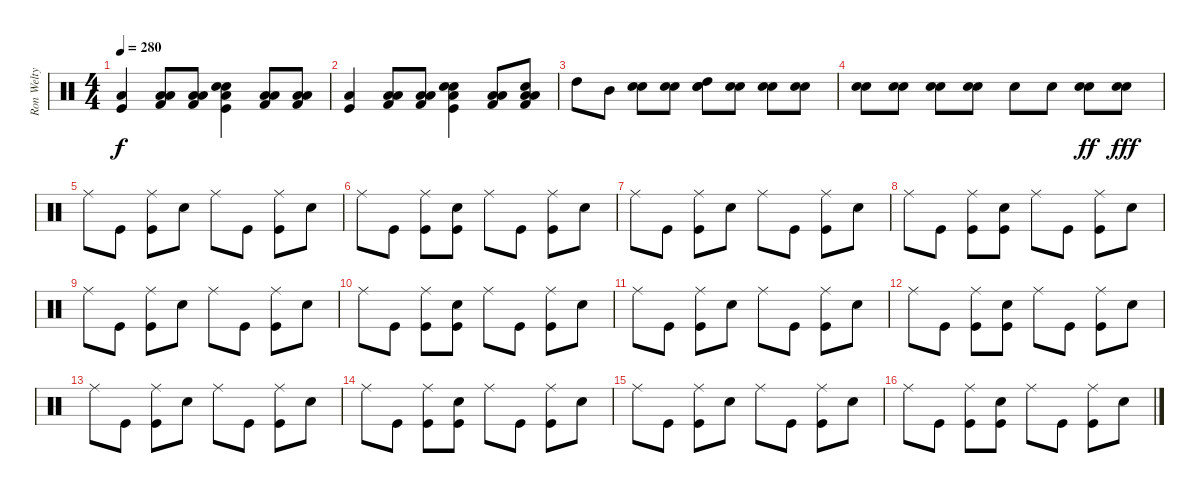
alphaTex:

\track ("Ron Welty" "Ron Welty") {instrument percussion}
\staff {score}
\articulation defaults
\ts (4 4)
\tempo 280
\clef neutral
\ks c
("Low Tom (hit)" "Kick (hit)").4{dy f} ("Low Tom (hit)" "Low Floor Tom (hit)" "Kick (hit) 2").8 ("Low Tom (hit)" "Low Floor Tom (hit)" "Kick (hit) 2").8 ("Snare (hit) 2" "Snare (hit) 2" "Low Tom (hit)" "Kick (hit)").4 ("Low Tom (hit)" "Low Floor Tom (hit)" "Kick (hit) 2").8 ("Low Tom (hit)" "Low Floor Tom (hit)" "Kick (hit) 2").8 |
("Low Tom (hit)" "Kick (hit)").4 ("Low Tom (hit)" "Low Floor Tom (hit)" "Kick (hit) 2").8 ("Low Tom (hit)" "Low Floor Tom (hit)" "Kick (hit) 2").8 ("Snare (hit) 2" "Snare (hit) 2" "Low Tom (hit)" "Kick (hit)").4 ("Low Tom (hit)" "Low Floor Tom (hit)" "Kick (hit) 2").8 ("Snare (hit) 2" "Low Tom (hit)" "Low Floor Tom (hit)" "Kick (hit) 2").8 |
"High Tom (hit)".8 "Mid Tom (hit)".8 ("Snare (hit) 2" "Snare (hit) 2").8 ("Snare (hit) 2" "Snare (hit) 2").8 ("Snare (hit) 2" "Electric Snare (hit)" "High Tom (hit)").8 ("Snare (hit) 2" "Electric Snare (hit)").8 ("Snare (hit) 2" "Snare (hit) 2").8 ("Snare (hit) 2" "Electric Snare (hit)").8 |
("Snare (hit) 2" "Electric Snare (hit)").8 ("Snare (hit) 2" "Electric Snare (hit)").8 ("Snare (hit) 2" "Snare (hit) 2").8 ("Snare (hit) 2" "Snare (hit) 2").8 "Electric Snare (hit)".8 "Electric Snare (hit)".8 ("Electric Snare (hit)" "Snare (hit) 2").8{dy ff} ("Electric Snare (hit)" "Snare (hit) 2").8{dy fff} |
"Ride (middle)".8 "Kick (hit)".8 ("Ride (middle)" "Kick (hit)").8 "Snare (hit) 2".8 "Ride (middle)".8 "Kick (hit)".8 ("Ride (middle)" "Kick (hit)").8 "Snare (hit) 2".8 |
"Ride (middle)".8 "Kick (hit)".8 ("Ride (middle)" "Kick (hit)").8 ("Snare (hit) 2" "Kick (hit)").8 "Ride (middle)".8 "Kick (hit)".8 ("Ride (middle)" "Kick (hit)").8 "Snare (hit) 2".8 |
"Ride (middle)".8 "Kick (hit)".8 ("Ride (middle)" "Kick (hit)").8 "Snare (hit) 2".8 "Ride (middle)".8 "Kick (hit)".8 ("Ride (middle)" "Kick (hit)").8 "Snare (hit) 2".8 |
"Ride (middle)".8 "Kick (hit)".8 ("Ride (middle)" "Kick (hit)").8 ("Snare (hit) 2" "Kick (hit)").8 "Ride (middle)".8 "Kick (hit)".8 ("Ride (middle)" "Kick (hit)").8 "Snare (hit) 2".8 |
"Ride (middle)".8 "Kick (hit)".8 ("Ride (middle)" "Kick (hit)").8 "Snare (hit) 2".8 "Ride (middle)".8 "Kick (hit)".8 ("Ride (middle)" "Kick (hit)").8 "Snare (hit) 2".8 |
"Ride (middle)".8 "Kick (hit)".8 ("Ride (middle)" "Kick (hit)").8 ("Snare (hit) 2" "Kick (hit)").8 "Ride (middle)".8 "Kick (hit)".8 ("Ride (middle)" "Kick (hit)").8 "Snare (hit) 2".8 |
"Ride (middle)".8 "Kick (hit)".8 ("Ride (middle)" "Kick (hit)").8 "Snare (hit) 2".8 "Ride (middle)".8 "Kick (hit)".8 ("Ride (middle)" "Kick (hit)").8 "Snare (hit) 2".8 |
"Ride (middle)".8 "Kick (hit)".8 ("Ride (middle)" "Kick (hit)").8 ("Snare (hit) 2" "Kick (hit)").8 "Ride (middle)".8 "Kick (hit)".8 ("Ride (middle)" "Kick (hit)").8 "Snare (hit) 2".8 |
"Ride (middle)".8 "Kick (hit)".8 ("Ride (middle)" "Kick (hit)").8 "Snare (hit) 2".8 "Ride (middle)".8 "Kick (hit)".8 ("Ride (middle)" "Kick (hit)").8 "Snare (hit) 2".8 |
"Ride (middle)".8 "Kick (hit)".8 ("Ride (middle)" "Kick (hit)").8 ("Snare (hit) 2" "Kick (hit)").8 "Ride (middle)".8 "Kick (hit)".8 ("Ride (middle)" "Kick (hit)").8 "Snare (hit) 2".8 |
"Ride (middle)".8 "Kick (hit)".8 ("Ride (middle)" "Kick (hit)").8 "Snare (hit) 2".8 "Ride (middle)".8 "Kick (hit)".8 ("Ride (middle)" "Kick (hit)").8 "Snare (hit) 2".8 |
"Ride (middle)".8 "Kick (hit)".8 ("Ride (middle)" "Kick (hit)").8 ("Snare (hit) 2" "Kick (hit)").8 "Ride (middle)".8 "Kick (hit)".8 ("Ride (middle)" "Kick (hit)").8 "Snare (hit) 2".8
